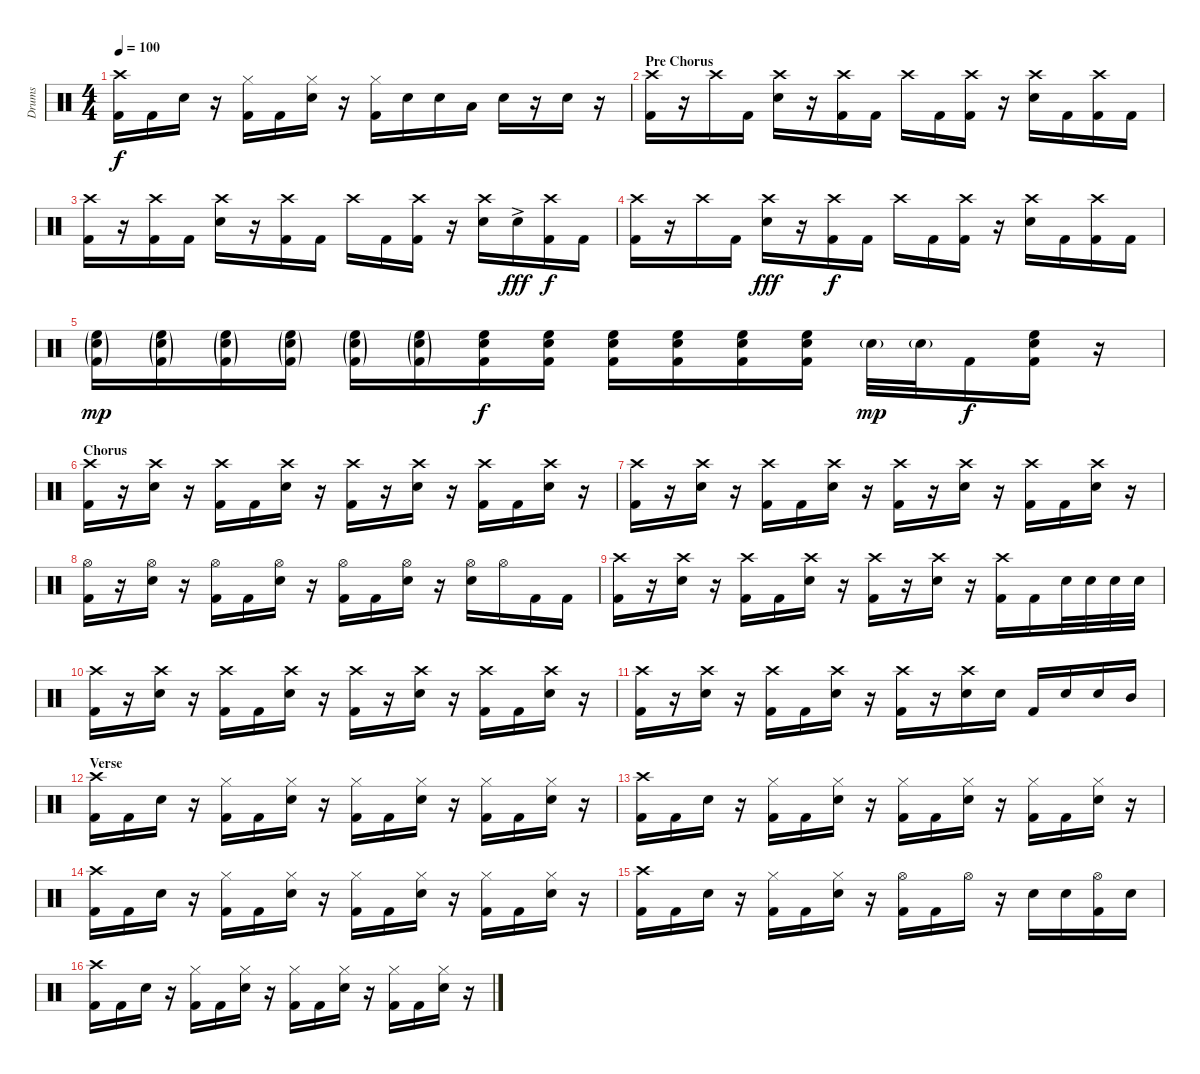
\track ("Drums" "Drums") {instrument percussion}
\staff {score}
\articulation defaults
\ts (4 4)
\tempo 100
\clef neutral
\ks c
("Crash high (hit)" "Kick (hit) 2").16{dy f} "Kick (hit) 2".16 "Electric Snare (hit)".16 r.16 ("Hi-Hat (closed)" "Kick (hit) 2").16 "Kick (hit) 2".16 ("Hi-Hat (closed)" "Electric Snare (hit)").16 r.16 ("Hi-Hat (closed)" "Kick (hit) 2").16 "Electric Snare (hit)".16 "Electric Snare (hit)".16 "Low Tom (hit)".16 "Electric Snare (hit)".16 r.16 "Electric Snare (hit)".16 r.16 |
\section ("" "Pre Chorus")
("Crash high (hit)" "Kick (hit) 2").16 r.16 "Crash high (hit)".16 "Kick (hit) 2".16 ("Crash high (hit)" "Electric Snare (hit)").16 r.16 ("Crash high (hit)" "Kick (hit) 2").16 "Kick (hit) 2".16 "Crash high (hit)".16 "Kick (hit) 2".16 ("Crash high (hit)" "Kick (hit) 2").16 r.16 ("Crash high (hit)" "Electric Snare (hit)").16 "Kick (hit) 2".16 ("Crash high (hit)" "Kick (hit) 2").16 "Kick (hit) 2".16 |
("Crash high (hit)" "Kick (hit) 2").16 r.16 ("Crash high (hit)" "Kick (hit) 2").16 "Kick (hit) 2".16 ("Crash high (hit)" "Electric Snare (hit)").16 r.16 ("Crash high (hit)" "Kick (hit) 2").16 "Kick (hit) 2".16 "Crash high (hit)".16 "Kick (hit) 2".16 ("Crash high (hit)" "Kick (hit) 2").16 r.16 ("Crash high (hit)" "Electric Snare (hit)").16 "Electric Snare (hit)"{ac}.16{dy fff} ("Crash high (hit)" "Kick (hit) 2").16{dy f} "Kick (hit) 2".16 |
("Crash high (hit)" "Kick (hit) 2").16 r.16 "Crash high (hit)".16 "Kick (hit) 2".16 ("Crash high (hit)" "Electric Snare (hit)").16{dy fff} r.16 ("Crash high (hit)" "Kick (hit) 2").16{dy f} "Kick (hit) 2".16 "Crash high (hit)".16 "Kick (hit) 2".16 ("Crash high (hit)" "Kick (hit) 2").16 r.16 ("Crash high (hit)" "Electric Snare (hit)").16 "Kick (hit) 2".16 ("Crash high (hit)" "Kick (hit) 2").16 "Kick (hit) 2".16 |
("High Floor Tom (hit)"{g} "Electric Snare (hit)"{g} "Kick (hit) 2"{g}).16{dy mp} ("High Floor Tom (hit)"{g} "Electric Snare (hit)"{g} "Kick (hit) 2"{g}).16 ("High Floor Tom (hit)"{g} "Electric Snare (hit)"{g} "Kick (hit) 2"{g}).16 ("High Floor Tom (hit)"{g} "Electric Snare (hit)"{g} "Kick (hit) 2"{g}).16 ("High Floor Tom (hit)"{g} "Electric Snare (hit)"{g} "Kick (hit) 2"{g}).16 ("High Floor Tom (hit)"{g} "Electric Snare (hit)"{g} "Kick (hit) 2"{g}).16 ("High Floor Tom (hit)" "Electric Snare (hit)" "Kick (hit) 2").16{dy f} ("High Floor Tom (hit)" "Electric Snare (hit)" "Kick (hit) 2").16 ("High Floor Tom (hit)" "Electric Snare (hit)" "Kick (hit) 2").16 ("High Floor Tom (hit)" "Electric Snare (hit)" "Kick (hit) 2").16 ("High Floor Tom (hit)" "Electric Snare (hit)" "Kick (hit) 2").16 ("High Floor Tom (hit)" "Electric Snare (hit)" "Kick (hit) 2").16 "Electric Snare (hit)"{g}.32{dy mp} "Electric Snare (hit)"{g}.32 "Kick (hit) 2".16{dy f} ("High Floor Tom (hit)" "Electric Snare (hit)" "Kick (hit) 2").16 r.16 |
\section ("" "Chorus")
("Crash high (hit)" "Kick (hit) 2").16 r.16 ("Crash high (hit)" "Electric Snare (hit)").16 r.16 ("Crash high (hit)" "Kick (hit) 2").16 "Kick (hit) 2".16 ("Crash high (hit)" "Electric Snare (hit)").16 r.16 ("Crash high (hit)" "Kick (hit) 2").16 r.16 ("Crash high (hit)" "Electric Snare (hit)").16 r.16 ("Crash high (hit)" "Kick (hit) 2").16 "Kick (hit) 2".16 ("Crash high (hit)" "Electric Snare (hit)").16 r.16 |
("Crash high (hit)" "Kick (hit) 2").16 r.16 ("Crash high (hit)" "Electric Snare (hit)").16 r.16 ("Crash high (hit)" "Kick (hit) 2").16 "Kick (hit) 2".16 ("Crash high (hit)" "Electric Snare (hit)").16 r.16 ("Crash high (hit)" "Kick (hit) 2").16 r.16 ("Crash high (hit)" "Electric Snare (hit)").16 r.16 ("Crash high (hit)" "Kick (hit) 2").16 "Kick (hit) 2".16 ("Crash high (hit)" "Electric Snare (hit)").16 r.16 |
("Hi-Hat (open)" "Kick (hit) 2").16 r.16 ("Hi-Hat (open)" "Electric Snare (hit)").16 r.16 ("Hi-Hat (open)" "Kick (hit) 2").16 "Kick (hit) 2".16 ("Hi-Hat (open)" "Electric Snare (hit)").16 r.16 ("Hi-Hat (open)" "Kick (hit) 2").16 "Kick (hit) 2".16 ("Hi-Hat (open)" "Electric Snare (hit)").16 r.16 ("Hi-Hat (open)" "Electric Snare (hit)").16 "Hi-Hat (open)".16 "Kick (hit) 2".16 "Kick (hit) 2".16 |
("Crash high (hit)" "Kick (hit) 2").16 r.16 ("Crash high (hit)" "Electric Snare (hit)").16 r.16 ("Crash high (hit)" "Kick (hit) 2").16 "Kick (hit) 2".16 ("Crash high (hit)" "Electric Snare (hit)").16 r.16 ("Crash high (hit)" "Kick (hit) 2").16 r.16 ("Crash high (hit)" "Electric Snare (hit)").16 r.16 ("Crash high (hit)" "Kick (hit) 2").16 "Kick (hit) 2".16 "Electric Snare (hit)".32 "Electric Snare (hit)".32 "Electric Snare (hit)".32 "Electric Snare (hit)".32 |
("Crash high (hit)" "Kick (hit) 2").16 r.16 ("Crash high (hit)" "Electric Snare (hit)").16 r.16 ("Crash high (hit)" "Kick (hit) 2").16 "Kick (hit) 2".16 ("Crash high (hit)" "Electric Snare (hit)").16 r.16 ("Crash high (hit)" "Kick (hit) 2").16 r.16 ("Crash high (hit)" "Electric Snare (hit)").16 r.16 ("Crash high (hit)" "Kick (hit) 2").16 "Kick (hit) 2".16 ("Crash high (hit)" "Electric Snare (hit)").16 r.16 |
("Crash high (hit)" "Kick (hit) 2").16 r.16 ("Crash high (hit)" "Electric Snare (hit)").16 r.16 ("Crash high (hit)" "Kick (hit) 2").16 "Kick (hit) 2".16 ("Crash high (hit)" "Electric Snare (hit)").16 r.16 ("Crash high (hit)" "Kick (hit) 2").16 r.16 ("Crash high (hit)" "Electric Snare (hit)").16 "Electric Snare (hit)".16 "Kick (hit) 2".16 "Electric Snare (hit)".16 "Electric Snare (hit)".16 "Mid Tom (hit)".16 |
\section ("" "Verse")
("Crash high (hit)" "Kick (hit) 2").16{volume 16} "Kick (hit) 2".16 "Electric Snare (hit)".16 r.16 ("Hi-Hat (closed)" "Kick (hit) 2").16 "Kick (hit) 2".16 ("Hi-Hat (closed)" "Electric Snare (hit)").16 r.16 ("Hi-Hat (closed)" "Kick (hit) 2").16 "Kick (hit) 2".16 ("Hi-Hat (closed)" "Electric Snare (hit)").16 r.16 ("Hi-Hat (closed)" "Kick (hit) 2").16 "Kick (hit) 2".16 ("Hi-Hat (closed)" "Electric Snare (hit)").16 r.16 |
("Crash high (hit)" "Kick (hit) 2").16 "Kick (hit) 2".16 "Electric Snare (hit)".16 r.16 ("Hi-Hat (closed)" "Kick (hit) 2").16 "Kick (hit) 2".16 ("Hi-Hat (closed)" "Electric Snare (hit)").16 r.16 ("Hi-Hat (closed)" "Kick (hit) 2").16 "Kick (hit) 2".16 ("Hi-Hat (closed)" "Electric Snare (hit)").16 r.16 ("Hi-Hat (closed)" "Kick (hit) 2").16 "Kick (hit) 2".16 ("Hi-Hat (closed)" "Electric Snare (hit)").16 r.16 |
("Crash high (hit)" "Kick (hit) 2").16 "Kick (hit) 2".16 "Electric Snare (hit)".16 r.16 ("Hi-Hat (closed)" "Kick (hit) 2").16 "Kick (hit) 2".16 ("Hi-Hat (closed)" "Electric Snare (hit)").16 r.16 ("Hi-Hat (closed)" "Kick (hit) 2").16 "Kick (hit) 2".16 ("Hi-Hat (closed)" "Electric Snare (hit)").16 r.16 ("Hi-Hat (closed)" "Kick (hit) 2").16 "Kick (hit) 2".16 ("Hi-Hat (closed)" "Electric Snare (hit)").16 r.16 |
("Crash high (hit)" "Kick (hit) 2").16 "Kick (hit) 2".16 "Electric Snare (hit)".16 r.16 ("Hi-Hat (closed)" "Kick (hit) 2").16 "Kick (hit) 2".16 ("Hi-Hat (closed)" "Electric Snare (hit)").16 r.16 ("Hi-Hat (open)" "Kick (hit) 2").16 "Kick (hit) 2".16 "Hi-Hat (open)".16 r.16 "Electric Snare (hit)".16 "Electric Snare (hit)".16 ("Hi-Hat (open)" "Kick (hit) 2").16 "Electric Snare (hit)".16 |
("Crash high (hit)" "Kick (hit) 2").16 "Kick (hit) 2".16 "Electric Snare (hit)".16 r.16 ("Hi-Hat (closed)" "Kick (hit) 2").16 "Kick (hit) 2".16 ("Hi-Hat (closed)" "Electric Snare (hit)").16 r.16 ("Hi-Hat (closed)" "Kick (hit) 2").16 "Kick (hit) 2".16 ("Hi-Hat (closed)" "Electric Snare (hit)").16 r.16 ("Hi-Hat (closed)" "Kick (hit) 2").16 "Kick (hit) 2".16 ("Hi-Hat (closed)" "Electric Snare (hit)").16 r.16
